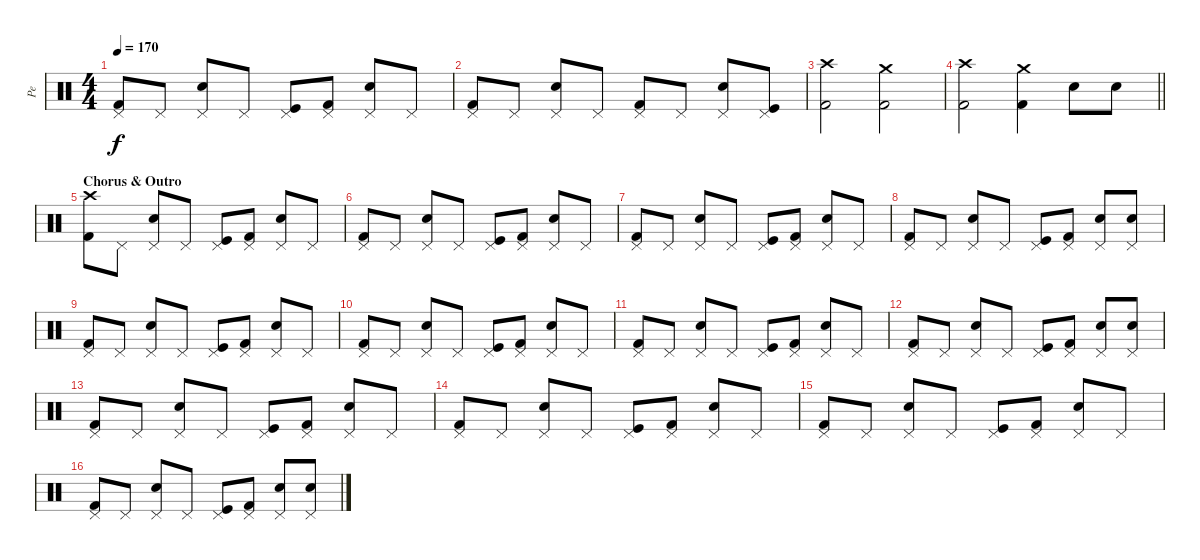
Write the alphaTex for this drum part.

\track ("Pe" "Pe") {instrument percussion}
\staff {score}
\articulation defaults
\ts (4 4)
\tempo 170
\clef neutral
\ks c
("Kick (hit) 2" "Pedal Hi-Hat (hit)").8{dy f} "Pedal Hi-Hat (hit)".8 ("Electric Snare (hit)" "Pedal Hi-Hat (hit)").8 "Pedal Hi-Hat (hit)".8 ("Kick (hit)" "Pedal Hi-Hat (hit)").8 ("Kick (hit) 2" "Pedal Hi-Hat (hit)").8 ("Electric Snare (hit)" "Pedal Hi-Hat (hit)").8 "Pedal Hi-Hat (hit)".8 |
("Kick (hit) 2" "Pedal Hi-Hat (hit)").8 "Pedal Hi-Hat (hit)".8 ("Electric Snare (hit)" "Pedal Hi-Hat (hit)").8 "Pedal Hi-Hat (hit)".8 ("Kick (hit) 2" "Pedal Hi-Hat (hit)").8 "Pedal Hi-Hat (hit)".8 ("Electric Snare (hit)" "Pedal Hi-Hat (hit)").8 ("Kick (hit)" "Pedal Hi-Hat (hit)").8 |
("Kick (hit) 2" "Crash high (hit)").2 ("Kick (hit) 2" "Crash medium (hit)").2 |
\barLineRight lightlight
("Kick (hit) 2" "Crash high (hit)").2 ("Kick (hit) 2" "Crash medium (hit)").4 "Electric Snare (hit)".8 "Electric Snare (hit)".8 |
\section ("" "Chorus & Outro")
("Kick (hit) 2" "Crash high (hit)").8 "Pedal Hi-Hat (hit)".8 ("Electric Snare (hit)" "Pedal Hi-Hat (hit)").8 "Pedal Hi-Hat (hit)".8 ("Kick (hit)" "Pedal Hi-Hat (hit)").8 ("Kick (hit) 2" "Pedal Hi-Hat (hit)").8 ("Electric Snare (hit)" "Pedal Hi-Hat (hit)").8 "Pedal Hi-Hat (hit)".8 |
("Kick (hit) 2" "Pedal Hi-Hat (hit)").8 "Pedal Hi-Hat (hit)".8 ("Electric Snare (hit)" "Pedal Hi-Hat (hit)").8 "Pedal Hi-Hat (hit)".8 ("Kick (hit)" "Pedal Hi-Hat (hit)").8 ("Kick (hit) 2" "Pedal Hi-Hat (hit)").8 ("Electric Snare (hit)" "Pedal Hi-Hat (hit)").8 "Pedal Hi-Hat (hit)".8 |
("Kick (hit) 2" "Pedal Hi-Hat (hit)").8 "Pedal Hi-Hat (hit)".8 ("Electric Snare (hit)" "Pedal Hi-Hat (hit)").8 "Pedal Hi-Hat (hit)".8 ("Kick (hit)" "Pedal Hi-Hat (hit)").8 ("Kick (hit) 2" "Pedal Hi-Hat (hit)").8 ("Electric Snare (hit)" "Pedal Hi-Hat (hit)").8 "Pedal Hi-Hat (hit)".8 |
("Kick (hit) 2" "Pedal Hi-Hat (hit)").8 "Pedal Hi-Hat (hit)".8 ("Electric Snare (hit)" "Pedal Hi-Hat (hit)").8 "Pedal Hi-Hat (hit)".8 ("Kick (hit)" "Pedal Hi-Hat (hit)").8 ("Kick (hit) 2" "Pedal Hi-Hat (hit)").8 ("Electric Snare (hit)" "Pedal Hi-Hat (hit)").8 ("Electric Snare (hit)" "Pedal Hi-Hat (hit)").8 |
("Kick (hit) 2" "Pedal Hi-Hat (hit)").8 "Pedal Hi-Hat (hit)".8 ("Electric Snare (hit)" "Pedal Hi-Hat (hit)").8 "Pedal Hi-Hat (hit)".8 ("Kick (hit)" "Pedal Hi-Hat (hit)").8 ("Kick (hit) 2" "Pedal Hi-Hat (hit)").8 ("Electric Snare (hit)" "Pedal Hi-Hat (hit)").8 "Pedal Hi-Hat (hit)".8 |
("Kick (hit) 2" "Pedal Hi-Hat (hit)").8 "Pedal Hi-Hat (hit)".8 ("Electric Snare (hit)" "Pedal Hi-Hat (hit)").8 "Pedal Hi-Hat (hit)".8 ("Kick (hit)" "Pedal Hi-Hat (hit)").8 ("Kick (hit) 2" "Pedal Hi-Hat (hit)").8 ("Electric Snare (hit)" "Pedal Hi-Hat (hit)").8 "Pedal Hi-Hat (hit)".8 |
("Kick (hit) 2" "Pedal Hi-Hat (hit)").8 "Pedal Hi-Hat (hit)".8 ("Electric Snare (hit)" "Pedal Hi-Hat (hit)").8 "Pedal Hi-Hat (hit)".8 ("Kick (hit)" "Pedal Hi-Hat (hit)").8 ("Kick (hit) 2" "Pedal Hi-Hat (hit)").8 ("Electric Snare (hit)" "Pedal Hi-Hat (hit)").8 "Pedal Hi-Hat (hit)".8 |
("Kick (hit) 2" "Pedal Hi-Hat (hit)").8 "Pedal Hi-Hat (hit)".8 ("Electric Snare (hit)" "Pedal Hi-Hat (hit)").8 "Pedal Hi-Hat (hit)".8 ("Kick (hit)" "Pedal Hi-Hat (hit)").8 ("Kick (hit) 2" "Pedal Hi-Hat (hit)").8 ("Electric Snare (hit)" "Pedal Hi-Hat (hit)").8 ("Electric Snare (hit)" "Pedal Hi-Hat (hit)").8 |
("Kick (hit) 2" "Pedal Hi-Hat (hit)").8 "Pedal Hi-Hat (hit)".8 ("Electric Snare (hit)" "Pedal Hi-Hat (hit)").8 "Pedal Hi-Hat (hit)".8 ("Kick (hit)" "Pedal Hi-Hat (hit)").8 ("Kick (hit) 2" "Pedal Hi-Hat (hit)").8 ("Electric Snare (hit)" "Pedal Hi-Hat (hit)").8 "Pedal Hi-Hat (hit)".8 |
("Kick (hit) 2" "Pedal Hi-Hat (hit)").8 "Pedal Hi-Hat (hit)".8 ("Electric Snare (hit)" "Pedal Hi-Hat (hit)").8 "Pedal Hi-Hat (hit)".8 ("Kick (hit)" "Pedal Hi-Hat (hit)").8 ("Kick (hit) 2" "Pedal Hi-Hat (hit)").8 ("Electric Snare (hit)" "Pedal Hi-Hat (hit)").8 "Pedal Hi-Hat (hit)".8 |
("Kick (hit) 2" "Pedal Hi-Hat (hit)").8 "Pedal Hi-Hat (hit)".8 ("Electric Snare (hit)" "Pedal Hi-Hat (hit)").8 "Pedal Hi-Hat (hit)".8 ("Kick (hit)" "Pedal Hi-Hat (hit)").8 ("Kick (hit) 2" "Pedal Hi-Hat (hit)").8 ("Electric Snare (hit)" "Pedal Hi-Hat (hit)").8 "Pedal Hi-Hat (hit)".8 |
("Kick (hit) 2" "Pedal Hi-Hat (hit)").8 "Pedal Hi-Hat (hit)".8 ("Electric Snare (hit)" "Pedal Hi-Hat (hit)").8 "Pedal Hi-Hat (hit)".8 ("Kick (hit)" "Pedal Hi-Hat (hit)").8 ("Kick (hit) 2" "Pedal Hi-Hat (hit)").8 ("Electric Snare (hit)" "Pedal Hi-Hat (hit)").8 ("Electric Snare (hit)" "Pedal Hi-Hat (hit)").8
